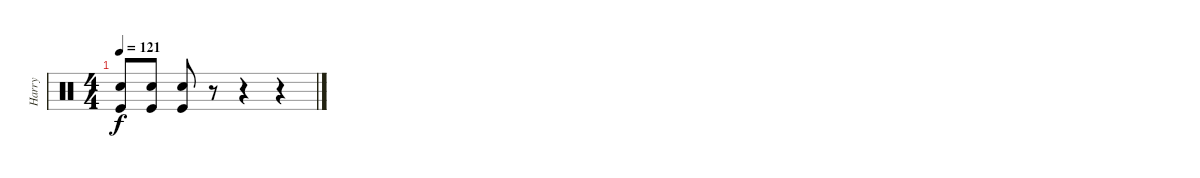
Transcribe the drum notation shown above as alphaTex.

\track ("Harry" "Harry") {instrument percussion}
\staff {score}
\articulation defaults
\ts (4 4)
\tempo 121
\clef neutral
\ks c
("Kick (hit)" "Snare (hit) 2").8{dy f} ("Kick (hit)" "Snare (hit) 2").8 ("Kick (hit)" "Snare (hit) 2").8 r.8 r.4 r.4
